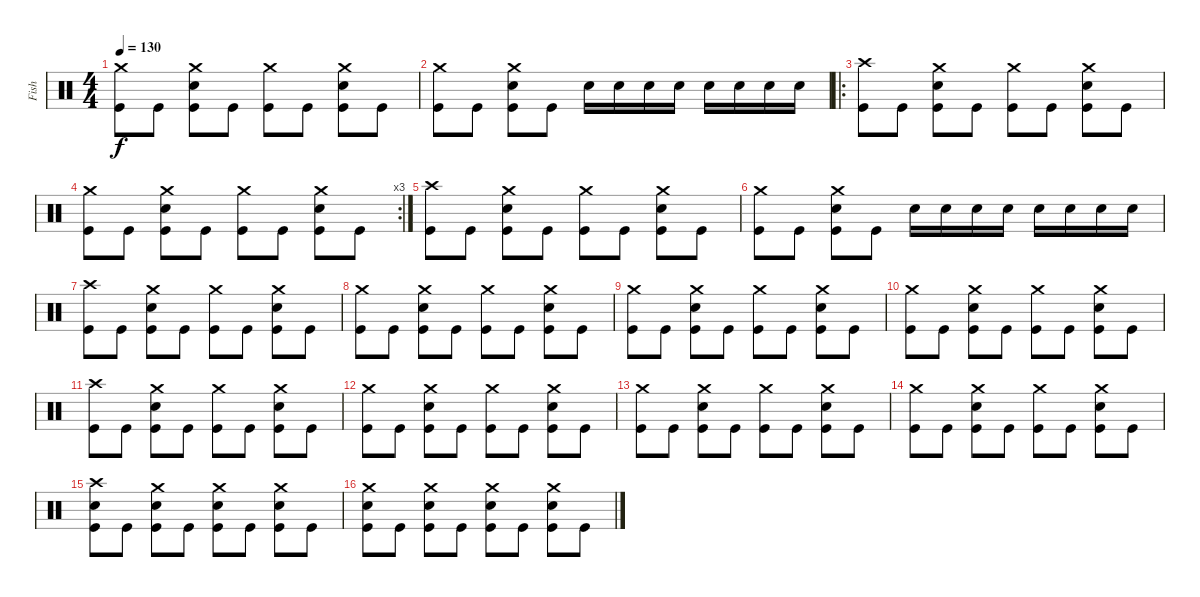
\track ("Fish" "Fish") {instrument percussion}
\staff {score}
\articulation defaults
\ts (4 4)
\tempo 130
\clef neutral
\ks c
("Crash medium (hit)" "Kick (hit)").8{dy f} "Kick (hit)".8 ("Crash medium (hit)" "Electric Snare (hit)" "Kick (hit)").8 "Kick (hit)".8 ("Crash medium (hit)" "Kick (hit)").8 "Kick (hit)".8 ("Crash medium (hit)" "Electric Snare (hit)" "Kick (hit)").8 "Kick (hit)".8 |
("Crash medium (hit)" "Kick (hit)").8 "Kick (hit)".8 ("Crash medium (hit)" "Electric Snare (hit)" "Kick (hit)").8 "Kick (hit)".8 "Snare (hit) 2".16 "Snare (hit) 2".16 "Snare (hit) 2".16 "Snare (hit) 2".16 "Snare (hit) 2".16 "Snare (hit) 2".16 "Snare (hit) 2".16 "Snare (hit) 2".16 |
\ro
("Crash high (hit)" "Kick (hit)").8 "Kick (hit)".8 ("Crash medium (hit)" "Electric Snare (hit)" "Kick (hit)").8 "Kick (hit)".8 ("Crash medium (hit)" "Kick (hit)").8 "Kick (hit)".8 ("Crash medium (hit)" "Electric Snare (hit)" "Kick (hit)").8 "Kick (hit)".8 |
\rc 3
("Crash medium (hit)" "Kick (hit)").8 "Kick (hit)".8 ("Crash medium (hit)" "Electric Snare (hit)" "Kick (hit)").8 "Kick (hit)".8 ("Crash medium (hit)" "Kick (hit)").8 "Kick (hit)".8 ("Crash medium (hit)" "Electric Snare (hit)" "Kick (hit)").8 "Kick (hit)".8 |
("Crash high (hit)" "Kick (hit)").8 "Kick (hit)".8 ("Crash medium (hit)" "Electric Snare (hit)" "Kick (hit)").8 "Kick (hit)".8 ("Crash medium (hit)" "Kick (hit)").8 "Kick (hit)".8 ("Crash medium (hit)" "Electric Snare (hit)" "Kick (hit)").8 "Kick (hit)".8 |
("Crash medium (hit)" "Kick (hit)").8 "Kick (hit)".8 ("Crash medium (hit)" "Electric Snare (hit)" "Kick (hit)").8 "Kick (hit)".8 "Snare (hit) 2".16 "Snare (hit) 2".16 "Snare (hit) 2".16 "Snare (hit) 2".16 "Snare (hit) 2".16 "Snare (hit) 2".16 "Snare (hit) 2".16 "Snare (hit) 2".16 |
("Crash high (hit)" "Kick (hit)").8 "Kick (hit)".8 ("Crash medium (hit)" "Electric Snare (hit)" "Kick (hit)").8 "Kick (hit)".8 ("Crash medium (hit)" "Kick (hit)").8 "Kick (hit)".8 ("Crash medium (hit)" "Electric Snare (hit)" "Kick (hit)").8 "Kick (hit)".8 |
("Crash medium (hit)" "Kick (hit)").8 "Kick (hit)".8 ("Crash medium (hit)" "Electric Snare (hit)" "Kick (hit)").8 "Kick (hit)".8 ("Crash medium (hit)" "Kick (hit)").8 "Kick (hit)".8 ("Crash medium (hit)" "Electric Snare (hit)" "Kick (hit)").8 "Kick (hit)".8 |
("Crash medium (hit)" "Kick (hit)").8 "Kick (hit)".8 ("Crash medium (hit)" "Electric Snare (hit)" "Kick (hit)").8 "Kick (hit)".8 ("Crash medium (hit)" "Kick (hit)").8 "Kick (hit)".8 ("Crash medium (hit)" "Electric Snare (hit)" "Kick (hit)").8 "Kick (hit)".8 |
("Crash medium (hit)" "Kick (hit)").8 "Kick (hit)".8 ("Crash medium (hit)" "Electric Snare (hit)" "Kick (hit)").8 "Kick (hit)".8 ("Crash medium (hit)" "Kick (hit)").8 "Kick (hit)".8 ("Crash medium (hit)" "Electric Snare (hit)" "Kick (hit)").8 "Kick (hit)".8 |
("Crash high (hit)" "Kick (hit)").8 "Kick (hit)".8 ("Crash medium (hit)" "Electric Snare (hit)" "Kick (hit)").8 "Kick (hit)".8 ("Crash medium (hit)" "Kick (hit)").8 "Kick (hit)".8 ("Crash medium (hit)" "Electric Snare (hit)" "Kick (hit)").8 "Kick (hit)".8 |
("Crash medium (hit)" "Kick (hit)").8 "Kick (hit)".8 ("Crash medium (hit)" "Electric Snare (hit)" "Kick (hit)").8 "Kick (hit)".8 ("Crash medium (hit)" "Kick (hit)").8 "Kick (hit)".8 ("Crash medium (hit)" "Electric Snare (hit)" "Kick (hit)").8 "Kick (hit)".8 |
("Crash medium (hit)" "Kick (hit)").8 "Kick (hit)".8 ("Crash medium (hit)" "Electric Snare (hit)" "Kick (hit)").8 "Kick (hit)".8 ("Crash medium (hit)" "Kick (hit)").8 "Kick (hit)".8 ("Crash medium (hit)" "Electric Snare (hit)" "Kick (hit)").8 "Kick (hit)".8 |
("Crash medium (hit)" "Kick (hit)").8 "Kick (hit)".8 ("Crash medium (hit)" "Electric Snare (hit)" "Kick (hit)").8 "Kick (hit)".8 ("Crash medium (hit)" "Kick (hit)").8 "Kick (hit)".8 ("Crash medium (hit)" "Electric Snare (hit)" "Kick (hit)").8 "Kick (hit)".8 |
("Crash high (hit)" "Electric Snare (hit)" "Kick (hit)").8 "Kick (hit)".8 ("Crash medium (hit)" "Electric Snare (hit)" "Kick (hit)").8 "Kick (hit)".8 ("Crash medium (hit)" "Electric Snare (hit)" "Kick (hit)").8 "Kick (hit)".8 ("Crash medium (hit)" "Electric Snare (hit)" "Kick (hit)").8 "Kick (hit)".8 |
("Crash medium (hit)" "Electric Snare (hit)" "Kick (hit)").8 "Kick (hit)".8 ("Crash medium (hit)" "Electric Snare (hit)" "Kick (hit)").8 "Kick (hit)".8 ("Crash medium (hit)" "Electric Snare (hit)" "Kick (hit)").8 "Kick (hit)".8 ("Crash medium (hit)" "Electric Snare (hit)" "Kick (hit)").8 "Kick (hit)".8
